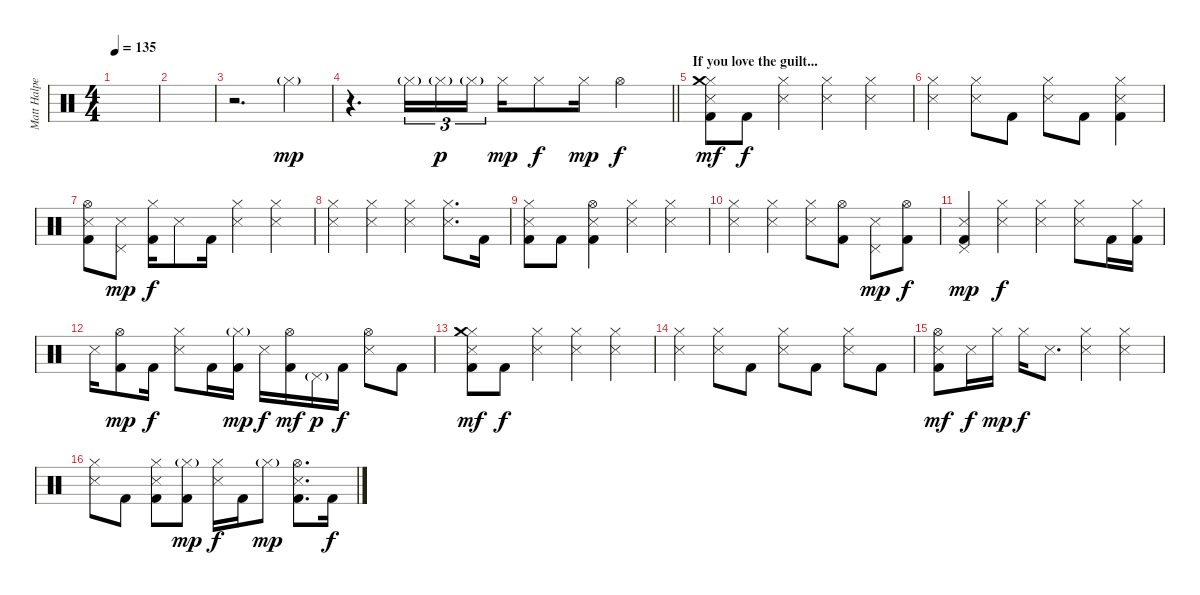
\track ("Matt Halpern - Drums" "Matt Halpe") {instrument percussion}
\staff {score}
\articulation defaults
\ts (4 4)
\tempo 135
\clef neutral
\ks c
|
|
r.2{d} "Hi-Hat (closed)"{g}.4{dy mp} |
\barLineRight lightlight
r.4{d} "Hi-Hat (closed)"{g}.16{tu (3 2)} "Hi-Hat (closed)"{g}.16{tu (3 2) dy p} "Hi-Hat (closed)"{g}.16{tu (3 2)} "Hi-Hat (closed)".16{dy mp} "Hi-Hat (closed)".8{dy f} "Hi-Hat (closed)".16{dy mp} "Hi-Hat (open)".4{dy f} |
\section ("" "If you love the guilt...")
("Hi-Hat (closed)" "Crash medium (hit)" "Snare (side stick) 3" "Kick (hit) 2").8{dy mf} "Kick (hit) 2".8{dy f} ("Hi-Hat (closed)" "Snare (side stick) 3").4 ("Hi-Hat (closed)" "Snare (side stick) 3").4 ("Hi-Hat (closed)" "Snare (side stick) 3").4 |
("Hi-Hat (closed)" "Snare (side stick) 3").4 ("Hi-Hat (closed)" "Snare (side stick) 3").8 "Kick (hit) 2".8 ("Hi-Hat (closed)" "Snare (side stick) 3").8 "Kick (hit) 2".8 ("Hi-Hat (closed)" "Snare (side stick) 3" "Kick (hit) 2").4 |
("Hi-Hat (open)" "Snare (side stick) 3" "Kick (hit) 2").8 ("Snare (side stick) 3" "Pedal Hi-Hat (hit)").8{dy mp} ("Hi-Hat (closed)" "Kick (hit) 2").16{dy f} "Snare (side stick) 3".8 "Kick (hit) 2".16 ("Hi-Hat (closed)" "Snare (side stick) 3").4 ("Hi-Hat (closed)" "Snare (side stick) 3").4 |
("Hi-Hat (closed)" "Snare (side stick) 3").4 ("Hi-Hat (closed)" "Snare (side stick) 3").4 ("Hi-Hat (closed)" "Snare (side stick) 3").4 ("Hi-Hat (closed)" "Snare (side stick) 3").8{d} "Kick (hit) 2".16 |
("Hi-Hat (closed)" "Snare (side stick) 3" "Kick (hit) 2").8 "Kick (hit) 2".8 ("Hi-Hat (open)" "Snare (side stick) 3" "Kick (hit) 2").4 ("Hi-Hat (closed)" "Snare (side stick) 3").4 ("Hi-Hat (closed)" "Snare (side stick) 3").4 |
("Hi-Hat (closed)" "Snare (side stick) 3").4 ("Hi-Hat (closed)" "Snare (side stick) 3").4 ("Hi-Hat (closed)" "Snare (side stick) 3").8 ("Hi-Hat (open)" "Kick (hit) 2").8 ("Snare (side stick) 3" "Pedal Hi-Hat (hit)").8{dy mp} ("Hi-Hat (open)" "Kick (hit) 2").8{dy f} |
("Snare (side stick) 3" "Pedal Hi-Hat (hit)" "Kick (hit) 2").4{dy mp} ("Hi-Hat (closed)" "Snare (side stick) 3").4{dy f} ("Hi-Hat (closed)" "Snare (side stick) 3").4 ("Hi-Hat (closed)" "Snare (side stick) 3").8 "Kick (hit) 2".16 ("Hi-Hat (closed)" "Kick (hit) 2").16 |
"Snare (side stick) 3".16 ("Hi-Hat (open)" "Kick (hit) 2").8{dy mp} "Kick (hit) 2".16{dy f} ("Hi-Hat (closed)" "Snare (side stick) 3").8 "Kick (hit) 2".16 ("Hi-Hat (closed)"{g} "Kick (hit) 2").16{dy mp} "Snare (side stick) 3".16{dy f} ("Hi-Hat (open)" "Kick (hit) 2").16{dy mf} "Pedal Hi-Hat (hit)"{g}.16{dy p} "Kick (hit) 2".16{dy f} ("Hi-Hat (open)" "Snare (side stick) 3").8 "Kick (hit) 2".8 |
("Hi-Hat (closed)" "Crash medium (hit)" "Snare (side stick) 3" "Kick (hit) 2").8{dy mf} "Kick (hit) 2".8{dy f} ("Hi-Hat (closed)" "Snare (side stick) 3").4 ("Hi-Hat (closed)" "Snare (side stick) 3").4 ("Hi-Hat (closed)" "Snare (side stick) 3").4 |
("Hi-Hat (closed)" "Snare (side stick) 3").4 ("Hi-Hat (closed)" "Snare (side stick) 3").8 "Kick (hit) 2".8 ("Hi-Hat (closed)" "Snare (side stick) 3").8 "Kick (hit) 2".8 ("Hi-Hat (closed)" "Snare (side stick) 3").8 "Kick (hit) 2".8 |
("Hi-Hat (open)" "Snare (side stick) 3" "Kick (hit) 2").8{dy mf} "Snare (side stick) 3".16{dy f} "Hi-Hat (closed)".16{dy mp} "Hi-Hat (closed)".16{dy f} "Snare (side stick) 3".8{d} ("Hi-Hat (closed)" "Snare (side stick) 3").4 ("Hi-Hat (closed)" "Snare (side stick) 3").4 |
("Hi-Hat (closed)" "Snare (side stick) 3").8 "Kick (hit) 2".8 ("Hi-Hat (closed)" "Snare (side stick) 3" "Kick (hit) 2").8 ("Hi-Hat (closed)"{g} "Kick (hit) 2").8{dy mp} ("Hi-Hat (closed)" "Snare (side stick) 3").16{dy f} "Kick (hit) 2".16 "Hi-Hat (closed)"{g}.8{dy mp} ("Hi-Hat (open)" "Snare (side stick) 3" "Kick (hit) 2").8{d} "Kick (hit) 2".16{dy f}
